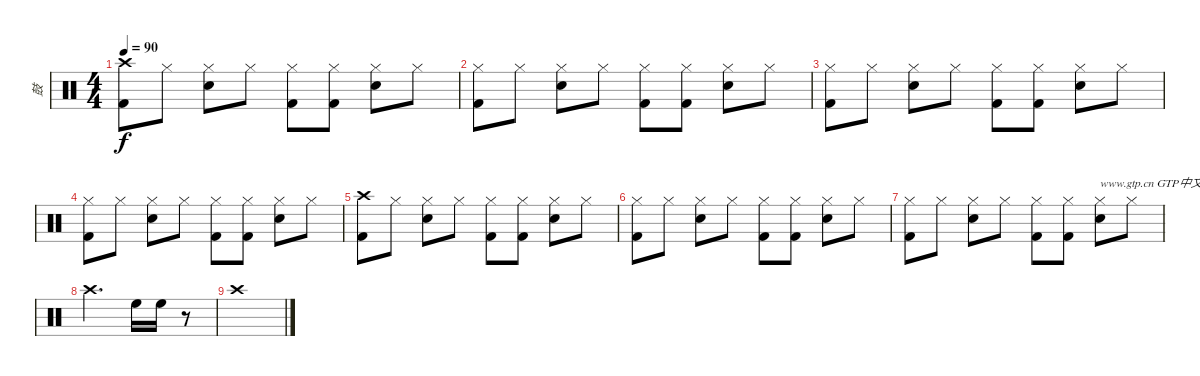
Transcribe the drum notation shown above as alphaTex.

\track ("鼓" "鼓") {instrument percussion}
\staff {score}
\articulation defaults
\ts (4 4)
\tempo 90
\clef neutral
\ks c
("Crash high (hit)" "Kick (hit) 2").8{dy f} "Hi-Hat (closed)".8 ("Hi-Hat (closed)" "Snare (hit) 2").8 "Hi-Hat (closed)".8 ("Hi-Hat (closed)" "Kick (hit) 2").8 ("Hi-Hat (closed)" "Kick (hit) 2").8 ("Hi-Hat (closed)" "Snare (hit) 2").8 "Hi-Hat (closed)".8 |
("Hi-Hat (closed)" "Kick (hit) 2").8 "Hi-Hat (closed)".8 ("Hi-Hat (closed)" "Snare (hit) 2").8 "Hi-Hat (closed)".8 ("Hi-Hat (closed)" "Kick (hit) 2").8 ("Hi-Hat (closed)" "Kick (hit) 2").8 ("Hi-Hat (closed)" "Snare (hit) 2").8 "Hi-Hat (closed)".8 |
("Hi-Hat (closed)" "Kick (hit) 2").8 "Hi-Hat (closed)".8 ("Hi-Hat (closed)" "Snare (hit) 2").8 "Hi-Hat (closed)".8 ("Hi-Hat (closed)" "Kick (hit) 2").8 ("Hi-Hat (closed)" "Kick (hit) 2").8 ("Hi-Hat (closed)" "Snare (hit) 2").8 "Hi-Hat (closed)".8 |
("Hi-Hat (closed)" "Kick (hit) 2").8 "Hi-Hat (closed)".8 ("Hi-Hat (closed)" "Snare (hit) 2").8 "Hi-Hat (closed)".8 ("Hi-Hat (closed)" "Kick (hit) 2").8 ("Hi-Hat (closed)" "Kick (hit) 2").8 ("Hi-Hat (closed)" "Snare (hit) 2").8 "Hi-Hat (closed)".8 |
("Crash high (hit)" "Kick (hit) 2").8 "Hi-Hat (closed)".8 ("Hi-Hat (closed)" "Snare (hit) 2").8 "Hi-Hat (closed)".8 ("Hi-Hat (closed)" "Kick (hit) 2").8 ("Hi-Hat (closed)" "Kick (hit) 2").8 ("Hi-Hat (closed)" "Snare (hit) 2").8 "Hi-Hat (closed)".8 |
("Hi-Hat (closed)" "Kick (hit) 2").8 "Hi-Hat (closed)".8 ("Hi-Hat (closed)" "Snare (hit) 2").8 "Hi-Hat (closed)".8 ("Hi-Hat (closed)" "Kick (hit) 2").8 ("Hi-Hat (closed)" "Kick (hit) 2").8 ("Hi-Hat (closed)" "Snare (hit) 2").8 "Hi-Hat (closed)".8 |
("Hi-Hat (closed)" "Kick (hit) 2").8 "Hi-Hat (closed)".8 ("Hi-Hat (closed)" "Snare (hit) 2").8 "Hi-Hat (closed)".8 ("Hi-Hat (closed)" "Kick (hit) 2").8 ("Hi-Hat (closed)" "Kick (hit) 2").8 ("Hi-Hat (closed)" "Snare (hit) 2").8{txt "www.gtp.cn GTP中文网为您提供优秀的谱子"} "Hi-Hat (closed)".8 |
"Crash high (hit)".2{d} "High Floor Tom (hit)".16 "High Floor Tom (hit)".16 r.8 |
"Crash high (hit)".1
